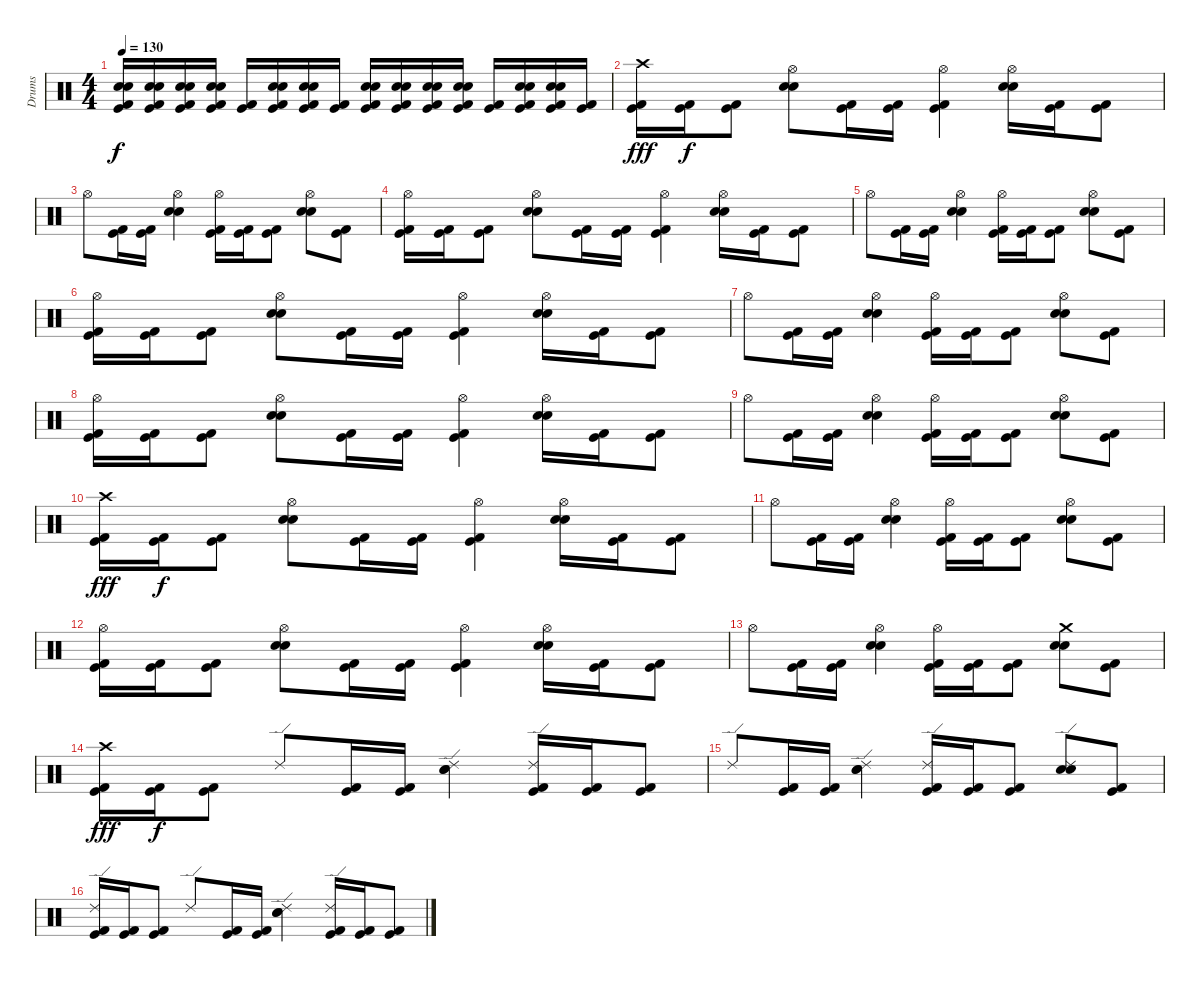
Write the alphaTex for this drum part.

\track ("Drums" "Drums") {instrument percussion}
\staff {score}
\articulation defaults
\ts (4 4)
\tempo 130
\clef neutral
\ks c
("Electric Snare (hit)" "Snare (hit) 2" "Kick (hit) 2" "Kick (hit)").16{dy f} ("Electric Snare (hit)" "Snare (hit) 2" "Kick (hit) 2" "Kick (hit)").16 ("Electric Snare (hit)" "Snare (hit) 2" "Kick (hit) 2" "Kick (hit)").16 ("Electric Snare (hit)" "Snare (hit) 2" "Kick (hit) 2" "Kick (hit)").16 ("Kick (hit) 2" "Kick (hit)").16 ("Electric Snare (hit)" "Snare (hit) 2" "Kick (hit) 2" "Kick (hit)").16 ("Electric Snare (hit)" "Snare (hit) 2" "Kick (hit) 2" "Kick (hit)").16 ("Kick (hit) 2" "Kick (hit)").16 ("Electric Snare (hit)" "Snare (hit) 2" "Kick (hit) 2" "Kick (hit)").16 ("Electric Snare (hit)" "Snare (hit) 2" "Kick (hit) 2" "Kick (hit)").16 ("Electric Snare (hit)" "Snare (hit) 2" "Kick (hit) 2" "Kick (hit)").16 ("Electric Snare (hit)" "Snare (hit) 2" "Kick (hit) 2" "Kick (hit)").16 ("Kick (hit) 2" "Kick (hit)").16 ("Electric Snare (hit)" "Snare (hit) 2" "Kick (hit) 2" "Kick (hit)").16 ("Electric Snare (hit)" "Snare (hit) 2" "Kick (hit) 2" "Kick (hit)").16 ("Kick (hit) 2" "Kick (hit)").16 |
("Crash high (hit)" "Kick (hit) 2" "Kick (hit)").16{dy fff} ("Kick (hit) 2" "Kick (hit)").16{dy f} ("Kick (hit) 2" "Kick (hit)").8 ("Hi-Hat (open)" "Electric Snare (hit)" "Snare (hit) 2").8 ("Kick (hit) 2" "Kick (hit)").16 ("Kick (hit) 2" "Kick (hit)").16 ("Hi-Hat (open)" "Kick (hit) 2" "Kick (hit)").4 ("Hi-Hat (open)" "Electric Snare (hit)" "Snare (hit) 2").16 ("Kick (hit) 2" "Kick (hit)").16 ("Kick (hit) 2" "Kick (hit)").8 |
"Hi-Hat (open)".8 ("Kick (hit) 2" "Kick (hit)").16 ("Kick (hit) 2" "Kick (hit)").16 ("Hi-Hat (open)" "Electric Snare (hit)" "Snare (hit) 2").4 ("Hi-Hat (open)" "Kick (hit) 2" "Kick (hit)").16 ("Kick (hit) 2" "Kick (hit)").16 ("Kick (hit) 2" "Kick (hit)").8 ("Hi-Hat (open)" "Electric Snare (hit)" "Snare (hit) 2").8 ("Kick (hit) 2" "Kick (hit)").8 |
("Hi-Hat (open)" "Kick (hit) 2" "Kick (hit)").16 ("Kick (hit) 2" "Kick (hit)").16 ("Kick (hit) 2" "Kick (hit)").8 ("Hi-Hat (open)" "Electric Snare (hit)" "Snare (hit) 2").8 ("Kick (hit) 2" "Kick (hit)").16 ("Kick (hit) 2" "Kick (hit)").16 ("Hi-Hat (open)" "Kick (hit) 2" "Kick (hit)").4 ("Hi-Hat (open)" "Electric Snare (hit)" "Snare (hit) 2").16 ("Kick (hit) 2" "Kick (hit)").16 ("Kick (hit) 2" "Kick (hit)").8 |
"Hi-Hat (open)".8 ("Kick (hit) 2" "Kick (hit)").16 ("Kick (hit) 2" "Kick (hit)").16 ("Hi-Hat (open)" "Electric Snare (hit)" "Snare (hit) 2").4 ("Hi-Hat (open)" "Kick (hit) 2" "Kick (hit)").16 ("Kick (hit) 2" "Kick (hit)").16 ("Kick (hit) 2" "Kick (hit)").8 ("Hi-Hat (open)" "Electric Snare (hit)" "Snare (hit) 2").8 ("Kick (hit) 2" "Kick (hit)").8 |
("Hi-Hat (open)" "Kick (hit) 2" "Kick (hit)").16 ("Kick (hit) 2" "Kick (hit)").16 ("Kick (hit) 2" "Kick (hit)").8 ("Hi-Hat (open)" "Electric Snare (hit)" "Snare (hit) 2").8 ("Kick (hit) 2" "Kick (hit)").16 ("Kick (hit) 2" "Kick (hit)").16 ("Hi-Hat (open)" "Kick (hit) 2" "Kick (hit)").4 ("Hi-Hat (open)" "Electric Snare (hit)" "Snare (hit) 2").16 ("Kick (hit) 2" "Kick (hit)").16 ("Kick (hit) 2" "Kick (hit)").8 |
"Hi-Hat (open)".8 ("Kick (hit) 2" "Kick (hit)").16 ("Kick (hit) 2" "Kick (hit)").16 ("Hi-Hat (open)" "Electric Snare (hit)" "Snare (hit) 2").4 ("Hi-Hat (open)" "Kick (hit) 2" "Kick (hit)").16 ("Kick (hit) 2" "Kick (hit)").16 ("Kick (hit) 2" "Kick (hit)").8 ("Hi-Hat (open)" "Electric Snare (hit)" "Snare (hit) 2").8 ("Kick (hit) 2" "Kick (hit)").8 |
("Hi-Hat (open)" "Kick (hit) 2" "Kick (hit)").16 ("Kick (hit) 2" "Kick (hit)").16 ("Kick (hit) 2" "Kick (hit)").8 ("Hi-Hat (open)" "Electric Snare (hit)" "Snare (hit) 2").8 ("Kick (hit) 2" "Kick (hit)").16 ("Kick (hit) 2" "Kick (hit)").16 ("Hi-Hat (open)" "Kick (hit) 2" "Kick (hit)").4 ("Hi-Hat (open)" "Electric Snare (hit)" "Snare (hit) 2").16 ("Kick (hit) 2" "Kick (hit)").16 ("Kick (hit) 2" "Kick (hit)").8 |
"Hi-Hat (open)".8 ("Kick (hit) 2" "Kick (hit)").16 ("Kick (hit) 2" "Kick (hit)").16 ("Hi-Hat (open)" "Electric Snare (hit)" "Snare (hit) 2").4 ("Hi-Hat (open)" "Kick (hit) 2" "Kick (hit)").16 ("Kick (hit) 2" "Kick (hit)").16 ("Kick (hit) 2" "Kick (hit)").8 ("Hi-Hat (open)" "Electric Snare (hit)" "Snare (hit) 2").8 ("Kick (hit) 2" "Kick (hit)").8 |
("Crash high (hit)" "Kick (hit) 2" "Kick (hit)").16{dy fff} ("Kick (hit) 2" "Kick (hit)").16{dy f} ("Kick (hit) 2" "Kick (hit)").8 ("Hi-Hat (open)" "Electric Snare (hit)" "Snare (hit) 2").8 ("Kick (hit) 2" "Kick (hit)").16 ("Kick (hit) 2" "Kick (hit)").16 ("Hi-Hat (open)" "Kick (hit) 2" "Kick (hit)").4 ("Hi-Hat (open)" "Electric Snare (hit)" "Snare (hit) 2").16 ("Kick (hit) 2" "Kick (hit)").16 ("Kick (hit) 2" "Kick (hit)").8 |
"Hi-Hat (open)".8 ("Kick (hit) 2" "Kick (hit)").16 ("Kick (hit) 2" "Kick (hit)").16 ("Hi-Hat (open)" "Electric Snare (hit)" "Snare (hit) 2").4 ("Hi-Hat (open)" "Kick (hit) 2" "Kick (hit)").16 ("Kick (hit) 2" "Kick (hit)").16 ("Kick (hit) 2" "Kick (hit)").8 ("Hi-Hat (open)" "Electric Snare (hit)" "Snare (hit) 2").8 ("Kick (hit) 2" "Kick (hit)").8 |
("Hi-Hat (open)" "Kick (hit) 2" "Kick (hit)").16 ("Kick (hit) 2" "Kick (hit)").16 ("Kick (hit) 2" "Kick (hit)").8 ("Hi-Hat (open)" "Electric Snare (hit)" "Snare (hit) 2").8 ("Kick (hit) 2" "Kick (hit)").16 ("Kick (hit) 2" "Kick (hit)").16 ("Hi-Hat (open)" "Kick (hit) 2" "Kick (hit)").4 ("Hi-Hat (open)" "Electric Snare (hit)" "Snare (hit) 2").16 ("Kick (hit) 2" "Kick (hit)").16 ("Kick (hit) 2" "Kick (hit)").8 |
"Hi-Hat (open)".8 ("Kick (hit) 2" "Kick (hit)").16 ("Kick (hit) 2" "Kick (hit)").16 ("Hi-Hat (open)" "Electric Snare (hit)" "Snare (hit) 2").4 ("Hi-Hat (open)" "Kick (hit) 2" "Kick (hit)").16 ("Kick (hit) 2" "Kick (hit)").16 ("Kick (hit) 2" "Kick (hit)").8 ("Crash medium (hit)" "Electric Snare (hit)" "Snare (hit) 2").8 ("Kick (hit) 2" "Kick (hit)").8 |
("Crash high (hit)" "Kick (hit) 2" "Kick (hit)").16{dy fff} ("Kick (hit) 2" "Kick (hit)").16{dy f} ("Kick (hit) 2" "Kick (hit)").8 "Ride (edge) 2".8 ("Kick (hit) 2" "Kick (hit)").16 ("Kick (hit) 2" "Kick (hit)").16 ("Ride (edge) 2" "Electric Snare (hit)" "Snare (hit) 2").4 ("Ride (edge) 2" "Kick (hit) 2" "Kick (hit)").16 ("Kick (hit) 2" "Kick (hit)").16 ("Kick (hit) 2" "Kick (hit)").8 |
"Ride (edge) 2".8 ("Kick (hit) 2" "Kick (hit)").16 ("Kick (hit) 2" "Kick (hit)").16 ("Ride (edge) 2" "Electric Snare (hit)" "Snare (hit) 2").4 ("Ride (edge) 2" "Kick (hit) 2" "Kick (hit)").16 ("Kick (hit) 2" "Kick (hit)").16 ("Kick (hit) 2" "Kick (hit)").8 ("Ride (edge) 2" "Electric Snare (hit)" "Snare (hit) 2").8 ("Kick (hit) 2" "Kick (hit)").8 |
("Ride (edge) 2" "Kick (hit) 2" "Kick (hit)").16 ("Kick (hit) 2" "Kick (hit)").16 ("Kick (hit) 2" "Kick (hit)").8 "Ride (edge) 2".8 ("Kick (hit) 2" "Kick (hit)").16 ("Kick (hit) 2" "Kick (hit)").16 ("Ride (edge) 2" "Electric Snare (hit)" "Snare (hit) 2").4 ("Ride (edge) 2" "Kick (hit) 2" "Kick (hit)").16 ("Kick (hit) 2" "Kick (hit)").16 ("Kick (hit) 2" "Kick (hit)").8
